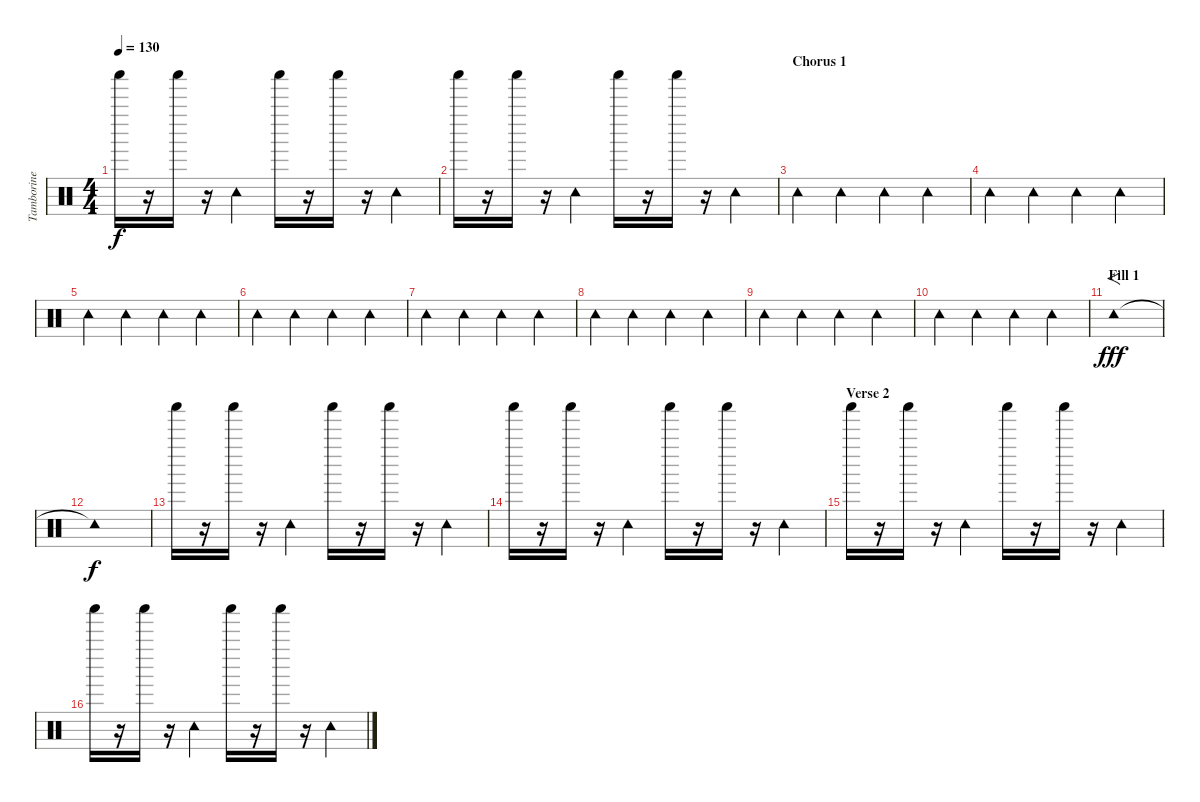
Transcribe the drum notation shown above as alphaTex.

\track ("Tamborine" "Tamborine") {instrument percussion}
\staff {score}
\articulation defaults
\ts (4 4)
\tempo 130
\clef neutral
\ks c "Shaker (hit)".16{dy f}
r.16 "Shaker (hit)".16 r.16 "Tambourine (hit)".4 "Shaker (hit)".16 r.16 "Shaker (hit)".16 r.16 "Tambourine (hit)".4 |
"Shaker (hit)".16 r.16 "Shaker (hit)".16 r.16 "Tambourine (hit)".4 "Shaker (hit)".16 r.16 "Shaker (hit)".16 r.16 "Tambourine (hit)".4 |
\section ("" "Chorus 1")
"Tambourine (hit)".4 "Tambourine (hit)".4 "Tambourine (hit)".4 "Tambourine (hit)".4 |
"Tambourine (hit)".4 "Tambourine (hit)".4 "Tambourine (hit)".4 "Tambourine (hit)".4 |
"Tambourine (hit)".4 "Tambourine (hit)".4 "Tambourine (hit)".4 "Tambourine (hit)".4 |
"Tambourine (hit)".4 "Tambourine (hit)".4 "Tambourine (hit)".4 "Tambourine (hit)".4 |
"Tambourine (hit)".4 "Tambourine (hit)".4 "Tambourine (hit)".4 "Tambourine (hit)".4 |
"Tambourine (hit)".4 "Tambourine (hit)".4 "Tambourine (hit)".4 "Tambourine (hit)".4 |
"Tambourine (hit)".4 "Tambourine (hit)".4 "Tambourine (hit)".4 "Tambourine (hit)".4 |
"Tambourine (hit)".4 "Tambourine (hit)".4 "Tambourine (hit)".4 "Tambourine (hit)".4 |
\section ("" "Fill 1")
"Tambourine (hit)"{tr (54 32)}.1{f dy fff} |
"Tambourine (hit)"{t}.1{dy f} |
"Shaker (hit)".16 r.16 "Shaker (hit)".16 r.16 "Tambourine (hit)".4 "Shaker (hit)".16 r.16 "Shaker (hit)".16 r.16 "Tambourine (hit)".4 |
"Shaker (hit)".16 r.16 "Shaker (hit)".16 r.16 "Tambourine (hit)".4 "Shaker (hit)".16 r.16 "Shaker (hit)".16 r.16 "Tambourine (hit)".4 |
\section ("" "Verse 2")
"Shaker (hit)".16 r.16 "Shaker (hit)".16 r.16 "Tambourine (hit)".4 "Shaker (hit)".16 r.16 "Shaker (hit)".16 r.16 "Tambourine (hit)".4 |
"Shaker (hit)".16 r.16 "Shaker (hit)".16 r.16 "Tambourine (hit)".4 "Shaker (hit)".16 r.16 "Shaker (hit)".16 r.16 "Tambourine (hit)".4
